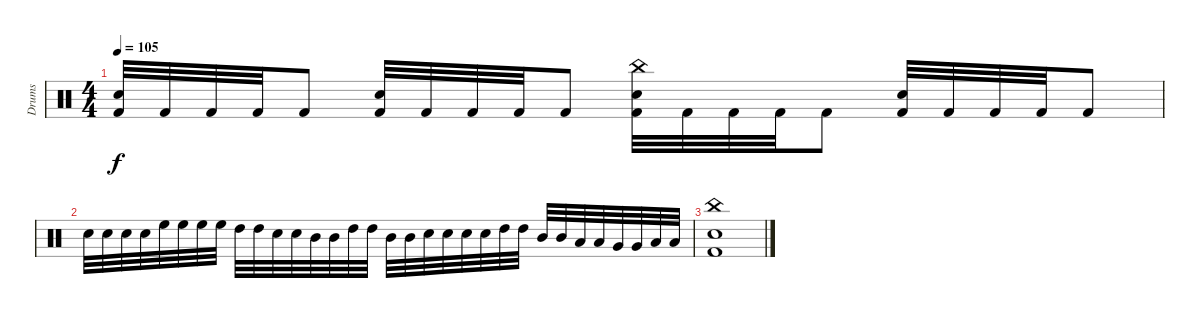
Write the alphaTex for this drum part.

\track ("Drums" "Drums") {instrument percussion}
\staff {score}
\articulation defaults
\ts (4 4)
\tempo 105
\clef neutral
\ks c
("Electric Snare (hit)" "Kick (hit) 2").32{dy f} "Kick (hit) 2".32 "Kick (hit) 2".32 "Kick (hit) 2".32 "Kick (hit) 2".8 ("Electric Snare (hit)" "Kick (hit) 2").32 "Kick (hit) 2".32 "Kick (hit) 2".32 "Kick (hit) 2".32 "Kick (hit) 2".8 ("China (hit)" "Electric Snare (hit)" "Kick (hit) 2").32 "Kick (hit) 2".32 "Kick (hit) 2".32 "Kick (hit) 2".32 "Kick (hit) 2".8 ("Electric Snare (hit)" "Kick (hit) 2").32 "Kick (hit) 2".32 "Kick (hit) 2".32 "Kick (hit) 2".32 "Kick (hit) 2".8 |
"Electric Snare (hit)".32 "Electric Snare (hit)".32 "Electric Snare (hit)".32 "Electric Snare (hit)".32 "High Floor Tom (hit)".32 "High Floor Tom (hit)".32 "High Floor Tom (hit)".32 "High Floor Tom (hit)".32 "High Tom (hit)".32 "High Tom (hit)".32 "Electric Snare (hit)".32 "Electric Snare (hit)".32 "Mid Tom (hit)".32 "Mid Tom (hit)".32 "High Tom (hit)".32 "High Tom (hit)".32 "Mid Tom (hit)".32 "Mid Tom (hit)".32 "Electric Snare (hit)".32 "Electric Snare (hit)".32 "Electric Snare (hit)".32 "Electric Snare (hit)".32 "High Tom (hit)".32 "High Tom (hit)".32 "Mid Tom (hit)".32 "Mid Tom (hit)".32 "Low Tom (hit)".32 "Low Tom (hit)".32 "Very Low Tom (hit)".32 "Very Low Tom (hit)".32 "Low Floor Tom (hit)".32 "Low Floor Tom (hit)".32 |
("China (hit)" "Electric Snare (hit)" "Kick (hit) 2").1
